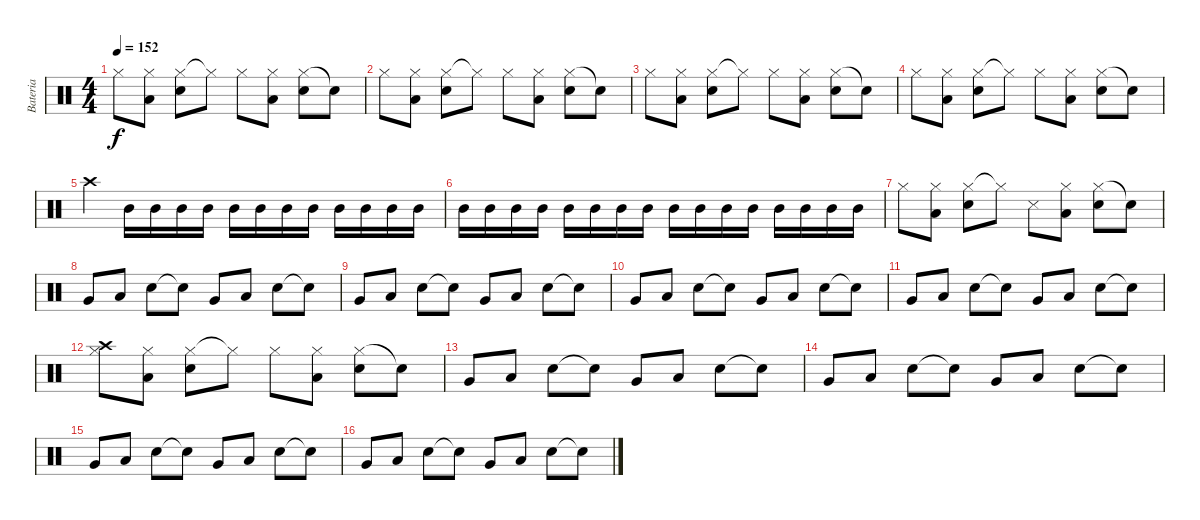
\track ("Bateria" "Bateria") {instrument percussion}
\staff {score}
\articulation defaults
\ts (4 4)
\tempo 152
\clef neutral
\ks c "Hi-Hat (closed)".8{dy f}
("Low Floor Tom (hit)" "Hi-Hat (closed)").8 ("Hi-Hat (closed)" "Snare (hit) 2").8 "Hi-Hat (closed)"{t}.8 "Hi-Hat (closed)".8 ("Low Floor Tom (hit)" "Hi-Hat (closed)").8 ("Hi-Hat (closed)" "Snare (hit) 2").8 "Snare (hit)"{t}.8 |
"Hi-Hat (closed)".8 ("Low Floor Tom (hit)" "Hi-Hat (closed)").8 ("Hi-Hat (closed)" "Snare (hit) 2").8 "Hi-Hat (closed)"{t}.8 "Hi-Hat (closed)".8 ("Low Floor Tom (hit)" "Hi-Hat (closed)").8 ("Hi-Hat (closed)" "Snare (hit) 2").8 "Snare (hit)"{t}.8 |
"Hi-Hat (closed)".8 ("Low Floor Tom (hit)" "Hi-Hat (closed)").8 ("Hi-Hat (closed)" "Snare (hit) 2").8 "Hi-Hat (closed)"{t}.8 "Hi-Hat (closed)".8 ("Low Floor Tom (hit)" "Hi-Hat (closed)").8 ("Hi-Hat (closed)" "Snare (hit) 2").8 "Snare (hit)"{t}.8 |
"Hi-Hat (closed)".8 ("Low Floor Tom (hit)" "Hi-Hat (closed)").8 ("Hi-Hat (closed)" "Snare (hit) 2").8 "Hi-Hat (closed)"{t}.8 "Hi-Hat (closed)".8 ("Low Floor Tom (hit)" "Hi-Hat (closed)").8 ("Hi-Hat (closed)" "Snare (hit) 2").8 "Snare (hit)"{t}.8 |
"Crash high (hit)".4 "Mid Tom (hit)".16 "Mid Tom (hit)".16 "Mid Tom (hit)".16 "Mid Tom (hit)".16 "Mid Tom (hit)".16 "Mid Tom (hit)".16 "Mid Tom (hit)".16 "Mid Tom (hit)".16 "Mid Tom (hit)".16 "Mid Tom (hit)".16 "Mid Tom (hit)".16 "Mid Tom (hit)".16 |
"Mid Tom (hit)".16 "Mid Tom (hit)".16 "Mid Tom (hit)".16 "Mid Tom (hit)".16 "Mid Tom (hit)".16 "Mid Tom (hit)".16 "Mid Tom (hit)".16 "Mid Tom (hit)".16 "Mid Tom (hit)".16 "Mid Tom (hit)".16 "Mid Tom (hit)".16 "Mid Tom (hit)".16 "Mid Tom (hit)".16 "Mid Tom (hit)".16 "Mid Tom (hit)".16 "Mid Tom (hit)".16 |
"Hi-Hat (closed)".8 ("Low Floor Tom (hit)" "Hi-Hat (closed)").8 ("Hi-Hat (closed)" "Snare (hit) 2").8 "Hi-Hat (closed)"{t}.8 "Snare (side stick) 3".8 ("Low Floor Tom (hit)" "Hi-Hat (closed)").8 ("Hi-Hat (closed)" "Snare (hit) 2").8 "Snare (hit)"{t}.8 |
"Very Low Tom (hit)".8 "Low Floor Tom (hit)".8 "Snare (hit) 2".8 "Snare (hit)"{t}.8 "Very Low Tom (hit)".8 "Low Floor Tom (hit)".8 "Snare (hit) 2".8 "Snare (hit)"{t}.8 |
"Very Low Tom (hit)".8 "Low Floor Tom (hit)".8 "Snare (hit) 2".8 "Snare (hit)"{t}.8 "Very Low Tom (hit)".8 "Low Floor Tom (hit)".8 "Snare (hit) 2".8 "Snare (hit)"{t}.8 |
"Very Low Tom (hit)".8 "Low Floor Tom (hit)".8 "Snare (hit) 2".8 "Snare (hit)"{t}.8 "Very Low Tom (hit)".8 "Low Floor Tom (hit)".8 "Snare (hit) 2".8 "Snare (hit)"{t}.8 |
"Very Low Tom (hit)".8 "Low Floor Tom (hit)".8 "Snare (hit) 2".8 "Snare (hit)"{t}.8 "Very Low Tom (hit)".8 "Low Floor Tom (hit)".8 "Snare (hit) 2".8 "Snare (hit)"{t}.8 |
("Hi-Hat (closed)" "Crash high (hit)").8 ("Low Floor Tom (hit)" "Hi-Hat (closed)").8 ("Hi-Hat (closed)" "Snare (hit) 2").8 "Hi-Hat (closed)"{t}.8 "Hi-Hat (closed)".8 ("Low Floor Tom (hit)" "Hi-Hat (closed)").8 ("Hi-Hat (closed)" "Snare (hit) 2").8 "Snare (hit)"{t}.8 |
"Very Low Tom (hit)".8 "Low Floor Tom (hit)".8 "Snare (hit) 2".8 "Snare (hit)"{t}.8 "Very Low Tom (hit)".8 "Low Floor Tom (hit)".8 "Snare (hit) 2".8 "Snare (hit)"{t}.8 |
"Very Low Tom (hit)".8 "Low Floor Tom (hit)".8 "Snare (hit) 2".8 "Snare (hit)"{t}.8 "Very Low Tom (hit)".8 "Low Floor Tom (hit)".8 "Snare (hit) 2".8 "Snare (hit)"{t}.8 |
"Very Low Tom (hit)".8 "Low Floor Tom (hit)".8 "Snare (hit) 2".8 "Snare (hit)"{t}.8 "Very Low Tom (hit)".8 "Low Floor Tom (hit)".8 "Snare (hit) 2".8 "Snare (hit)"{t}.8 |
"Very Low Tom (hit)".8 "Low Floor Tom (hit)".8 "Snare (hit) 2".8 "Snare (hit)"{t}.8 "Very Low Tom (hit)".8 "Low Floor Tom (hit)".8 "Snare (hit) 2".8 "Snare (hit)"{t}.8
